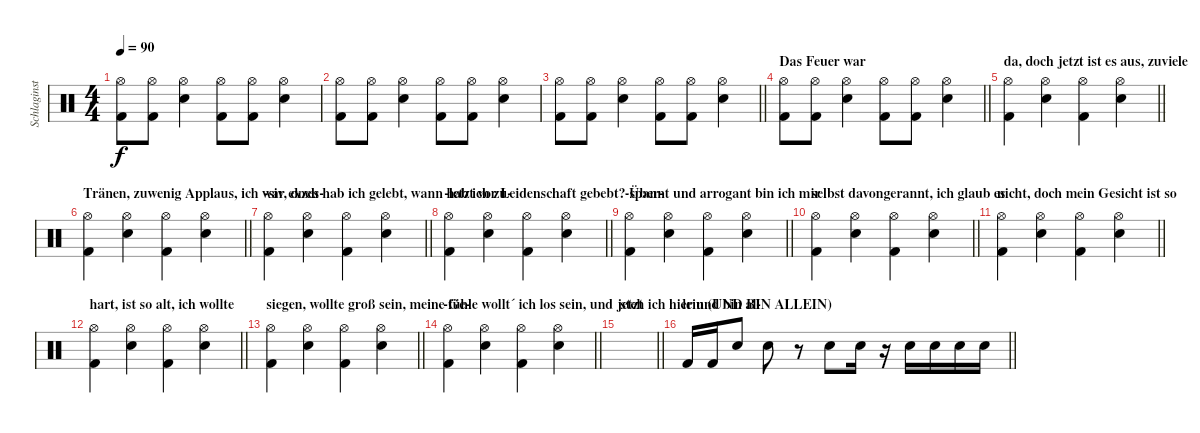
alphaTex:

\track ("Schlaginstrumente - Auswahl" "Schlaginst") {instrument percussion}
\staff {score}
\articulation defaults
\ts (4 4)
\tempo 90
\clef neutral
\ks c
("Kick (hit) 2" "Hi-Hat (open)").8{dy f} ("Kick (hit) 2" "Hi-Hat (open)").8 ("Snare (hit) 2" "Hi-Hat (open)").4 ("Kick (hit) 2" "Hi-Hat (open)").8 ("Kick (hit) 2" "Hi-Hat (open)").8 ("Snare (hit) 2" "Hi-Hat (open)").4 |
("Kick (hit) 2" "Hi-Hat (open)").8 ("Kick (hit) 2" "Hi-Hat (open)").8 ("Snare (hit) 2" "Hi-Hat (open)").4 ("Kick (hit) 2" "Hi-Hat (open)").8 ("Kick (hit) 2" "Hi-Hat (open)").8 ("Snare (hit) 2" "Hi-Hat (open)").4 |
\barLineRight lightlight
("Kick (hit) 2" "Hi-Hat (open)").8 ("Kick (hit) 2" "Hi-Hat (open)").8 ("Snare (hit) 2" "Hi-Hat (open)").4 ("Kick (hit) 2" "Hi-Hat (open)").8 ("Kick (hit) 2" "Hi-Hat (open)").8 ("Snare (hit) 2" "Hi-Hat (open)").4 |
\section ("" "Das Feuer war")
\barLineRight lightlight
("Kick (hit) 2" "Hi-Hat (open)").8 ("Kick (hit) 2" "Hi-Hat (open)").8 ("Snare (hit) 2" "Hi-Hat (open)").4 ("Kick (hit) 2" "Hi-Hat (open)").8 ("Kick (hit) 2" "Hi-Hat (open)").8 ("Snare (hit) 2" "Hi-Hat (open)").4 |
\section ("" "da, doch jetzt ist es aus, zuviele")
\barLineRight lightlight
("Kick (hit) 2" "Hi-Hat (open)").4{volume 8} ("Snare (hit) 2" "Hi-Hat (open)").4 ("Kick (hit) 2" "Hi-Hat (open)").4 ("Snare (hit) 2" "Hi-Hat (open)").4 |
\section ("" "Tränen, zuwenig Applaus, ich war exzes-")
\barLineRight lightlight
("Kick (hit) 2" "Hi-Hat (open)").4 ("Snare (hit) 2" "Hi-Hat (open)").4 ("Kick (hit) 2" "Hi-Hat (open)").4 ("Snare (hit) 2" "Hi-Hat (open)").4 |
\section ("" "-siv, doch hab ich gelebt, wann hab ich zu-")
\barLineRight lightlight
("Kick (hit) 2" "Hi-Hat (open)").4 ("Snare (hit) 2" "Hi-Hat (open)").4 ("Kick (hit) 2" "Hi-Hat (open)").4 ("Snare (hit) 2" "Hi-Hat (open)").4 |
\section ("" "-letzt vor Leidenschaft gebebt? Über-")
\barLineRight lightlight
("Kick (hit) 2" "Hi-Hat (open)").4 ("Snare (hit) 2" "Hi-Hat (open)").4 ("Kick (hit) 2" "Hi-Hat (open)").4 ("Snare (hit) 2" "Hi-Hat (open)").4 |
\section ("" "-spannt und arrogant bin ich mir ")
\barLineRight lightlight
("Kick (hit) 2" "Hi-Hat (open)").4 ("Snare (hit) 2" "Hi-Hat (open)").4 ("Kick (hit) 2" "Hi-Hat (open)").4 ("Snare (hit) 2" "Hi-Hat (open)").4 |
\section ("" "selbst davongerannt, ich glaub es")
\barLineRight lightlight
("Kick (hit) 2" "Hi-Hat (open)").4 ("Snare (hit) 2" "Hi-Hat (open)").4 ("Kick (hit) 2" "Hi-Hat (open)").4 ("Snare (hit) 2" "Hi-Hat (open)").4 |
\section ("" "nicht, doch mein Gesicht ist so")
\barLineRight lightlight
("Kick (hit) 2" "Hi-Hat (open)").4 ("Snare (hit) 2" "Hi-Hat (open)").4 ("Kick (hit) 2" "Hi-Hat (open)").4 ("Snare (hit) 2" "Hi-Hat (open)").4 |
\section ("" "hart, ist so alt, ich wollte")
\barLineRight lightlight
("Kick (hit) 2" "Hi-Hat (open)").4 ("Snare (hit) 2" "Hi-Hat (open)").4 ("Kick (hit) 2" "Hi-Hat (open)").4 ("Snare (hit) 2" "Hi-Hat (open)").4 |
\section ("" "siegen, wollte groß sein, meine Ge-")
\barLineRight lightlight
("Kick (hit) 2" "Hi-Hat (open)").4 ("Snare (hit) 2" "Hi-Hat (open)").4 ("Kick (hit) 2" "Hi-Hat (open)").4 ("Snare (hit) 2" "Hi-Hat (open)").4 |
\section ("" "-fühle wollt´ ich los sein, und jetzt")
\barLineRight lightlight
("Kick (hit) 2" "Hi-Hat (open)").4 ("Snare (hit) 2" "Hi-Hat (open)").4 ("Kick (hit) 2" "Hi-Hat (open)").4 ("Snare (hit) 2" "Hi-Hat (open)").4 |
\section ("" "steh ich hier und bin al-")
\barLineRight lightlight
|
\section ("" "lein (UND BIN ALLEIN)")
\barLineRight lightlight "Kick (hit) 2".16 "Kick (hit) 2".16 "Electric Snare (hit)".8 "Electric Snare (hit)".8
r.8 "Electric Snare (hit)".8 "Electric Snare (hit)".16 r.16 "Electric Snare (hit)".16 "Electric Snare (hit)".16 "Electric Snare (hit)".16 "Electric Snare (hit)".16
